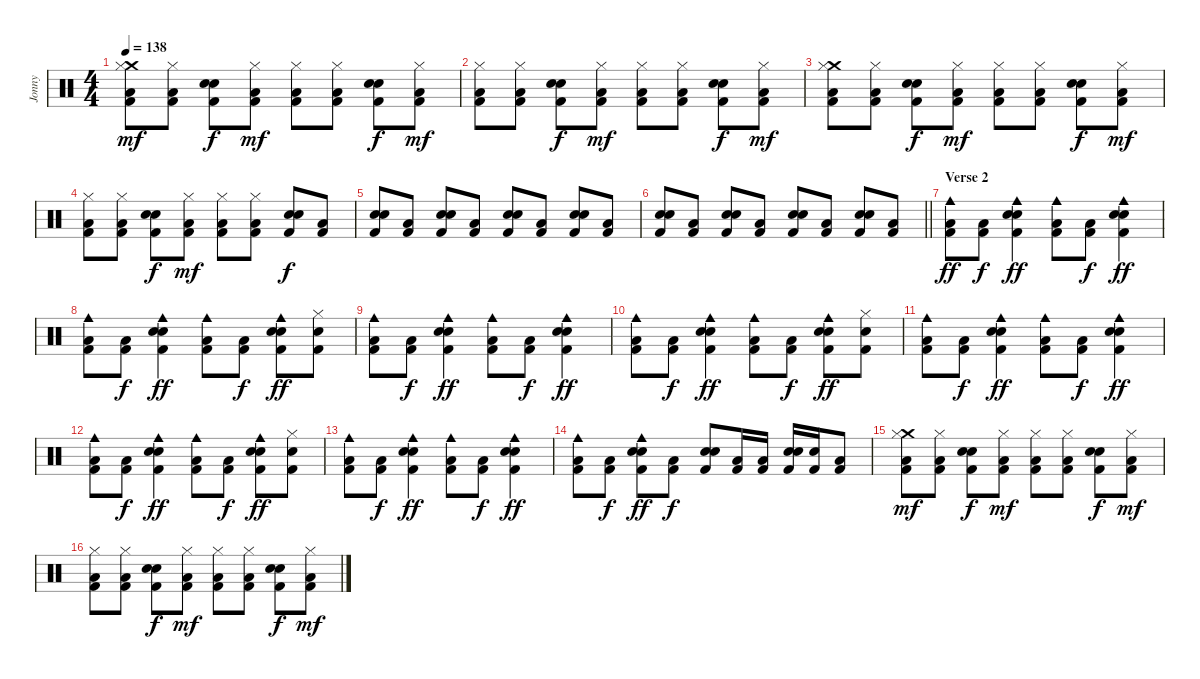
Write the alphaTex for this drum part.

\track ("Jonny" "Jonny") {instrument percussion}
\staff {score}
\articulation defaults
\ts (4 4)
\tempo 138
\clef neutral
\ks c
("Crash medium (hit)" "Hi-Hat (closed)" "Low Floor Tom (hit)" "Kick (hit) 2").8{dy mf} ("Hi-Hat (closed)" "Low Floor Tom (hit)" "Kick (hit) 2").8 ("Electric Snare (hit)" "Electric Snare (hit)" "Kick (hit) 2").8{dy f} ("Hi-Hat (closed)" "Low Floor Tom (hit)" "Kick (hit) 2").8{dy mf} ("Hi-Hat (closed)" "Low Floor Tom (hit)" "Kick (hit) 2").8 ("Hi-Hat (closed)" "Low Floor Tom (hit)" "Kick (hit) 2").8 ("Electric Snare (hit)" "Electric Snare (hit)" "Kick (hit) 2").8{dy f} ("Hi-Hat (closed)" "Low Floor Tom (hit)" "Kick (hit) 2").8{dy mf} |
("Hi-Hat (closed)" "Low Floor Tom (hit)" "Kick (hit) 2").8 ("Hi-Hat (closed)" "Low Floor Tom (hit)" "Kick (hit) 2").8 ("Electric Snare (hit)" "Electric Snare (hit)" "Kick (hit) 2").8{dy f} ("Hi-Hat (closed)" "Low Floor Tom (hit)" "Kick (hit) 2").8{dy mf} ("Hi-Hat (closed)" "Low Floor Tom (hit)" "Kick (hit) 2").8 ("Hi-Hat (closed)" "Low Floor Tom (hit)" "Kick (hit) 2").8 ("Electric Snare (hit)" "Electric Snare (hit)" "Kick (hit) 2").8{dy f} ("Hi-Hat (closed)" "Low Floor Tom (hit)" "Kick (hit) 2").8{dy mf} |
("Crash medium (hit)" "Hi-Hat (closed)" "Low Floor Tom (hit)" "Kick (hit) 2").8 ("Hi-Hat (closed)" "Low Floor Tom (hit)" "Kick (hit) 2").8 ("Electric Snare (hit)" "Electric Snare (hit)" "Kick (hit) 2").8{dy f} ("Hi-Hat (closed)" "Low Floor Tom (hit)" "Kick (hit) 2").8{dy mf} ("Hi-Hat (closed)" "Low Floor Tom (hit)" "Kick (hit) 2").8 ("Hi-Hat (closed)" "Low Floor Tom (hit)" "Kick (hit) 2").8 ("Electric Snare (hit)" "Electric Snare (hit)" "Kick (hit) 2").8{dy f} ("Hi-Hat (closed)" "Low Floor Tom (hit)" "Kick (hit) 2").8{dy mf} |
("Hi-Hat (closed)" "Low Floor Tom (hit)" "Kick (hit) 2").8 ("Hi-Hat (closed)" "Low Floor Tom (hit)" "Kick (hit) 2").8 ("Electric Snare (hit)" "Electric Snare (hit)" "Kick (hit) 2").8{dy f} ("Hi-Hat (closed)" "Low Floor Tom (hit)" "Kick (hit) 2").8{dy mf} ("Hi-Hat (closed)" "Low Floor Tom (hit)" "Kick (hit) 2").8 ("Hi-Hat (closed)" "Low Floor Tom (hit)" "Kick (hit) 2").8 ("Electric Snare (hit)" "Electric Snare (hit)" "Kick (hit) 2").8{dy f} ("Low Floor Tom (hit)" "Kick (hit) 2").8 |
("Electric Snare (hit)" "Electric Snare (hit)" "Kick (hit) 2").8 ("Low Floor Tom (hit)" "Kick (hit) 2").8 ("Electric Snare (hit)" "Electric Snare (hit)" "Kick (hit) 2").8 ("Low Floor Tom (hit)" "Kick (hit) 2").8 ("Electric Snare (hit)" "Electric Snare (hit)" "Kick (hit) 2").8 ("Low Floor Tom (hit)" "Kick (hit) 2").8 ("Electric Snare (hit)" "Electric Snare (hit)" "Kick (hit) 2").8 ("Low Floor Tom (hit)" "Kick (hit) 2").8 |
\barLineRight lightlight
("Electric Snare (hit)" "Electric Snare (hit)" "Kick (hit) 2").8 ("Low Floor Tom (hit)" "Kick (hit) 2").8 ("Electric Snare (hit)" "Electric Snare (hit)" "Kick (hit) 2").8 ("Low Floor Tom (hit)" "Kick (hit) 2").8 ("Electric Snare (hit)" "Electric Snare (hit)" "Kick (hit) 2").8 ("Low Floor Tom (hit)" "Kick (hit) 2").8 ("Electric Snare (hit)" "Electric Snare (hit)" "Kick (hit) 2").8 ("Low Floor Tom (hit)" "Kick (hit) 2").8 |
\section ("" "Verse 2")
("Cowbell medium (hit)" "Low Floor Tom (hit)" "Kick (hit) 2").8{dy ff} ("Low Floor Tom (hit)" "Kick (hit) 2").8{dy f} ("Cowbell medium (hit)" "Electric Snare (hit)" "Electric Snare (hit)" "Kick (hit) 2").4{dy ff} ("Cowbell medium (hit)" "Low Floor Tom (hit)" "Kick (hit) 2").8 ("Low Floor Tom (hit)" "Kick (hit) 2").8{dy f} ("Cowbell medium (hit)" "Electric Snare (hit)" "Electric Snare (hit)" "Kick (hit) 2").4{dy ff} |
("Cowbell medium (hit)" "Low Floor Tom (hit)" "Kick (hit) 2").8 ("Low Floor Tom (hit)" "Kick (hit) 2").8{dy f} ("Cowbell medium (hit)" "Electric Snare (hit)" "Electric Snare (hit)" "Kick (hit) 2").4{dy ff} ("Cowbell medium (hit)" "Low Floor Tom (hit)" "Kick (hit) 2").8 ("Low Floor Tom (hit)" "Kick (hit) 2").8{dy f} ("Cowbell medium (hit)" "Electric Snare (hit)" "Electric Snare (hit)" "Kick (hit) 2").8{dy ff} ("Hi-Hat (closed)" "Electric Snare (hit)" "Kick (hit) 2").8 |
("Cowbell medium (hit)" "Low Floor Tom (hit)" "Kick (hit) 2").8 ("Low Floor Tom (hit)" "Kick (hit) 2").8{dy f} ("Cowbell medium (hit)" "Electric Snare (hit)" "Electric Snare (hit)" "Kick (hit) 2").4{dy ff} ("Cowbell medium (hit)" "Low Floor Tom (hit)" "Kick (hit) 2").8 ("Low Floor Tom (hit)" "Kick (hit) 2").8{dy f} ("Cowbell medium (hit)" "Electric Snare (hit)" "Electric Snare (hit)" "Kick (hit) 2").4{dy ff} |
("Cowbell medium (hit)" "Low Floor Tom (hit)" "Kick (hit) 2").8 ("Low Floor Tom (hit)" "Kick (hit) 2").8{dy f} ("Cowbell medium (hit)" "Electric Snare (hit)" "Electric Snare (hit)" "Kick (hit) 2").4{dy ff} ("Cowbell medium (hit)" "Low Floor Tom (hit)" "Kick (hit) 2").8 ("Low Floor Tom (hit)" "Kick (hit) 2").8{dy f} ("Cowbell medium (hit)" "Electric Snare (hit)" "Electric Snare (hit)" "Kick (hit) 2").8{dy ff} ("Hi-Hat (closed)" "Electric Snare (hit)" "Kick (hit) 2").8 |
("Cowbell medium (hit)" "Low Floor Tom (hit)" "Kick (hit) 2").8 ("Low Floor Tom (hit)" "Kick (hit) 2").8{dy f} ("Cowbell medium (hit)" "Electric Snare (hit)" "Electric Snare (hit)" "Kick (hit) 2").4{dy ff} ("Cowbell medium (hit)" "Low Floor Tom (hit)" "Kick (hit) 2").8 ("Low Floor Tom (hit)" "Kick (hit) 2").8{dy f} ("Cowbell medium (hit)" "Electric Snare (hit)" "Electric Snare (hit)" "Kick (hit) 2").4{dy ff} |
("Cowbell medium (hit)" "Low Floor Tom (hit)" "Kick (hit) 2").8 ("Low Floor Tom (hit)" "Kick (hit) 2").8{dy f} ("Cowbell medium (hit)" "Electric Snare (hit)" "Electric Snare (hit)" "Kick (hit) 2").4{dy ff} ("Cowbell medium (hit)" "Low Floor Tom (hit)" "Kick (hit) 2").8 ("Low Floor Tom (hit)" "Kick (hit) 2").8{dy f} ("Cowbell medium (hit)" "Electric Snare (hit)" "Electric Snare (hit)" "Kick (hit) 2").8{dy ff} ("Hi-Hat (closed)" "Electric Snare (hit)" "Kick (hit) 2").8 |
("Cowbell medium (hit)" "Low Floor Tom (hit)" "Kick (hit) 2").8 ("Low Floor Tom (hit)" "Kick (hit) 2").8{dy f} ("Cowbell medium (hit)" "Electric Snare (hit)" "Electric Snare (hit)" "Kick (hit) 2").4{dy ff} ("Cowbell medium (hit)" "Low Floor Tom (hit)" "Kick (hit) 2").8 ("Low Floor Tom (hit)" "Kick (hit) 2").8{dy f} ("Cowbell medium (hit)" "Electric Snare (hit)" "Electric Snare (hit)" "Kick (hit) 2").4{dy ff} |
("Cowbell medium (hit)" "Low Floor Tom (hit)" "Kick (hit) 2").8 ("Low Floor Tom (hit)" "Kick (hit) 2").8{dy f} ("Cowbell medium (hit)" "Electric Snare (hit)" "Electric Snare (hit)" "Kick (hit) 2").8{dy ff} ("Low Floor Tom (hit)" "Kick (hit) 2").8{dy f} ("Electric Snare (hit)" "Electric Snare (hit)" "Kick (hit) 2").8 ("Low Floor Tom (hit)" "Kick (hit) 2").16 ("Low Floor Tom (hit)" "Kick (hit) 2").16 ("Electric Snare (hit)" "Electric Snare (hit)" "Kick (hit) 2").16 ("Electric Snare (hit)" "Kick (hit) 2").16 ("Low Floor Tom (hit)" "Kick (hit) 2").8 |
("Crash medium (hit)" "Hi-Hat (closed)" "Low Floor Tom (hit)" "Kick (hit) 2").8{dy mf} ("Hi-Hat (closed)" "Low Floor Tom (hit)" "Kick (hit) 2").8 ("Electric Snare (hit)" "Electric Snare (hit)" "Kick (hit) 2").8{dy f} ("Hi-Hat (closed)" "Low Floor Tom (hit)" "Kick (hit) 2").8{dy mf} ("Hi-Hat (closed)" "Low Floor Tom (hit)" "Kick (hit) 2").8 ("Hi-Hat (closed)" "Low Floor Tom (hit)" "Kick (hit) 2").8 ("Electric Snare (hit)" "Electric Snare (hit)" "Kick (hit) 2").8{dy f} ("Hi-Hat (closed)" "Low Floor Tom (hit)" "Kick (hit) 2").8{dy mf} |
("Hi-Hat (closed)" "Low Floor Tom (hit)" "Kick (hit) 2").8 ("Hi-Hat (closed)" "Low Floor Tom (hit)" "Kick (hit) 2").8 ("Electric Snare (hit)" "Electric Snare (hit)" "Kick (hit) 2").8{dy f} ("Hi-Hat (closed)" "Low Floor Tom (hit)" "Kick (hit) 2").8{dy mf} ("Hi-Hat (closed)" "Low Floor Tom (hit)" "Kick (hit) 2").8 ("Hi-Hat (closed)" "Low Floor Tom (hit)" "Kick (hit) 2").8 ("Electric Snare (hit)" "Electric Snare (hit)" "Kick (hit) 2").8{dy f} ("Hi-Hat (closed)" "Low Floor Tom (hit)" "Kick (hit) 2").8{dy mf}
